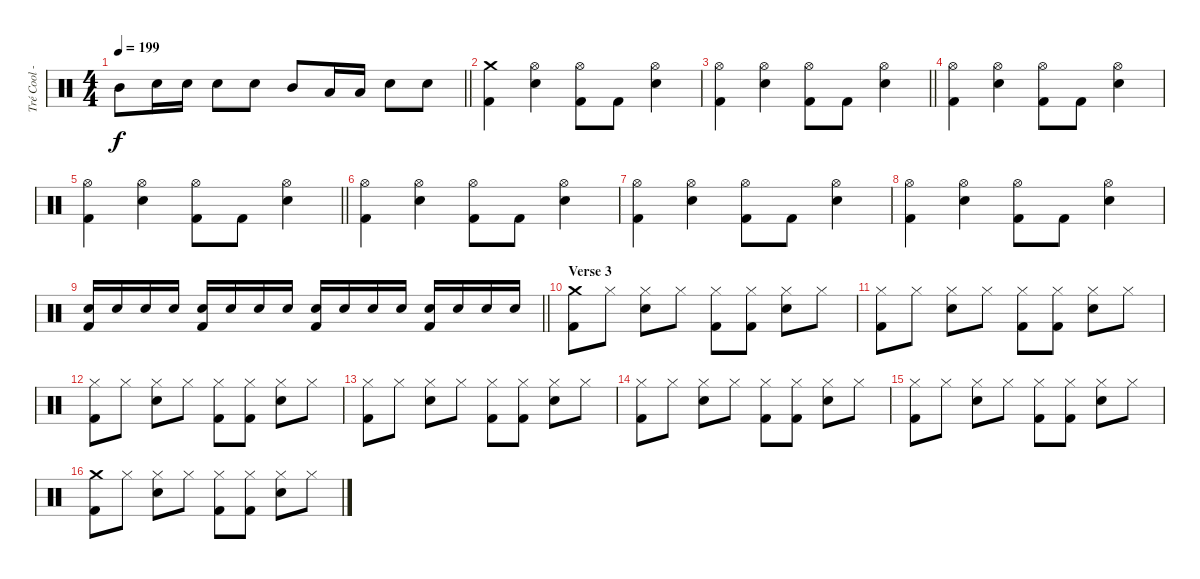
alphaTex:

\track ("Tré Cool - Drums" "Tré Cool -") {instrument percussion}
\staff {score}
\articulation defaults
\ts (4 4)
\tempo 199
\clef neutral
\barLineRight lightlight
\ks c "Mid Tom (hit)".8{dy f} "Electric Snare (hit)".16 "Electric Snare (hit)".16 "Electric Snare (hit)".8 "Electric Snare (hit)".8 "Mid Tom (hit)".8 "Low Tom (hit)".16 "Low Tom (hit)".16 "Electric Snare (hit)".8 "Electric Snare (hit)".8
|
("Crash medium (hit)" "Kick (hit) 2").4 ("Hi-Hat (open)" "Electric Snare (hit)").4 ("Hi-Hat (open)" "Kick (hit) 2").8 "Kick (hit) 2".8 ("Hi-Hat (open)" "Electric Snare (hit)").4 |
\barLineRight lightlight
("Hi-Hat (open)" "Kick (hit) 2").4 ("Hi-Hat (open)" "Electric Snare (hit)").4 ("Hi-Hat (open)" "Kick (hit) 2").8 "Kick (hit) 2".8 ("Hi-Hat (open)" "Electric Snare (hit)").4 |
("Hi-Hat (open)" "Kick (hit) 2").4 ("Hi-Hat (open)" "Electric Snare (hit)").4 ("Hi-Hat (open)" "Kick (hit) 2").8 "Kick (hit) 2".8 ("Hi-Hat (open)" "Electric Snare (hit)").4 |
\barLineRight lightlight
("Hi-Hat (open)" "Kick (hit) 2").4 ("Hi-Hat (open)" "Electric Snare (hit)").4 ("Hi-Hat (open)" "Kick (hit) 2").8 "Kick (hit) 2".8 ("Hi-Hat (open)" "Electric Snare (hit)").4 |
("Hi-Hat (open)" "Kick (hit) 2").4 ("Hi-Hat (open)" "Electric Snare (hit)").4 ("Hi-Hat (open)" "Kick (hit) 2").8 "Kick (hit) 2".8 ("Hi-Hat (open)" "Electric Snare (hit)").4 |
("Hi-Hat (open)" "Kick (hit) 2").4 ("Hi-Hat (open)" "Electric Snare (hit)").4 ("Hi-Hat (open)" "Kick (hit) 2").8 "Kick (hit) 2".8 ("Hi-Hat (open)" "Electric Snare (hit)").4 |
("Hi-Hat (open)" "Kick (hit) 2").4 ("Hi-Hat (open)" "Electric Snare (hit)").4 ("Hi-Hat (open)" "Kick (hit) 2").8 "Kick (hit) 2".8 ("Hi-Hat (open)" "Electric Snare (hit)").4 |
\barLineRight lightlight
("Electric Snare (hit)" "Kick (hit) 2").16{volume 8} "Electric Snare (hit)".16 "Electric Snare (hit)".16 "Electric Snare (hit)".16 ("Electric Snare (hit)" "Kick (hit) 2").16 "Electric Snare (hit)".16 "Electric Snare (hit)".16 "Electric Snare (hit)".16 ("Electric Snare (hit)" "Kick (hit) 2").16 "Electric Snare (hit)".16 "Electric Snare (hit)".16 "Electric Snare (hit)".16 ("Electric Snare (hit)" "Kick (hit) 2").16 "Electric Snare (hit)".16 "Electric Snare (hit)".16 "Electric Snare (hit)".16 |
\section ("" "Verse 3")
("Crash medium (hit)" "Kick (hit) 2").8{volume 11} "Hi-Hat (closed)".8 ("Hi-Hat (closed)" "Electric Snare (hit)").8 "Hi-Hat (closed)".8 ("Hi-Hat (closed)" "Kick (hit) 2").8 ("Hi-Hat (closed)" "Kick (hit) 2").8 ("Hi-Hat (closed)" "Electric Snare (hit)").8 "Hi-Hat (closed)".8 |
("Hi-Hat (closed)" "Kick (hit) 2").8 "Hi-Hat (closed)".8 ("Hi-Hat (closed)" "Electric Snare (hit)").8 "Hi-Hat (closed)".8 ("Hi-Hat (closed)" "Kick (hit) 2").8 ("Hi-Hat (closed)" "Kick (hit) 2").8 ("Hi-Hat (closed)" "Electric Snare (hit)").8 "Hi-Hat (closed)".8 |
("Hi-Hat (closed)" "Kick (hit) 2").8 "Hi-Hat (closed)".8 ("Hi-Hat (closed)" "Electric Snare (hit)").8 "Hi-Hat (closed)".8 ("Hi-Hat (closed)" "Kick (hit) 2").8 ("Hi-Hat (closed)" "Kick (hit) 2").8 ("Hi-Hat (closed)" "Electric Snare (hit)").8 "Hi-Hat (closed)".8 |
("Hi-Hat (closed)" "Kick (hit) 2").8 "Hi-Hat (closed)".8 ("Hi-Hat (closed)" "Electric Snare (hit)").8 "Hi-Hat (closed)".8 ("Hi-Hat (closed)" "Kick (hit) 2").8 ("Hi-Hat (closed)" "Kick (hit) 2").8 ("Hi-Hat (closed)" "Electric Snare (hit)").8 "Hi-Hat (closed)".8 |
("Hi-Hat (closed)" "Kick (hit) 2").8 "Hi-Hat (closed)".8 ("Hi-Hat (closed)" "Electric Snare (hit)").8 "Hi-Hat (closed)".8 ("Hi-Hat (closed)" "Kick (hit) 2").8 ("Hi-Hat (closed)" "Kick (hit) 2").8 ("Hi-Hat (closed)" "Electric Snare (hit)").8 "Hi-Hat (closed)".8 |
("Hi-Hat (closed)" "Kick (hit) 2").8 "Hi-Hat (closed)".8 ("Hi-Hat (closed)" "Electric Snare (hit)").8 "Hi-Hat (closed)".8 ("Hi-Hat (closed)" "Kick (hit) 2").8 ("Hi-Hat (closed)" "Kick (hit) 2").8 ("Hi-Hat (closed)" "Electric Snare (hit)").8 "Hi-Hat (closed)".8 |
("Crash medium (hit)" "Kick (hit) 2").8 "Hi-Hat (closed)".8 ("Hi-Hat (closed)" "Electric Snare (hit)").8 "Hi-Hat (closed)".8 ("Hi-Hat (closed)" "Kick (hit) 2").8 ("Hi-Hat (closed)" "Kick (hit) 2").8 ("Hi-Hat (closed)" "Electric Snare (hit)").8 "Hi-Hat (closed)".8
